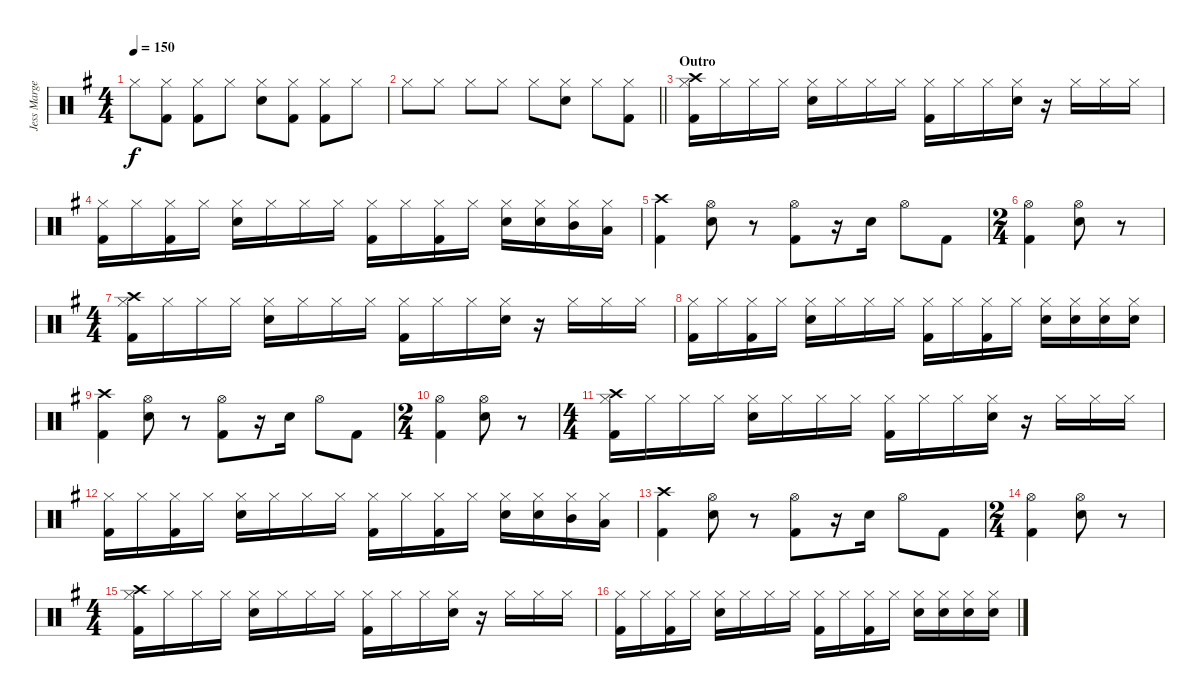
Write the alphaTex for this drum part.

\track ("Jess Margera" "Jess Marge") {instrument percussion}
\staff {score}
\articulation defaults
\ts (4 4)
\tempo 150
\clef neutral
\ks g "Hi-Hat (closed)".8{dy f}
("Hi-Hat (closed)" "Kick (hit) 2").8 ("Hi-Hat (closed)" "Kick (hit) 2").8 "Hi-Hat (closed)".8 ("Hi-Hat (closed)" "Electric Snare (hit)").8 ("Hi-Hat (closed)" "Kick (hit) 2").8 ("Hi-Hat (closed)" "Kick (hit) 2").8 "Hi-Hat (closed)".8 |
\barLineRight lightlight "Hi-Hat (closed)".8 "Hi-Hat (closed)".8 "Hi-Hat (closed)".8 "Hi-Hat (closed)".8 "Hi-Hat (closed)".8
("Hi-Hat (closed)" "Electric Snare (hit)").8 "Hi-Hat (closed)".8 ("Hi-Hat (closed)" "Kick (hit) 2").8 |
\section ("" "Outro")
("Crash high (hit)" "Hi-Hat (closed)" "Kick (hit) 2").16 "Hi-Hat (closed)".16 "Hi-Hat (closed)".16 "Hi-Hat (closed)".16 ("Hi-Hat (closed)" "Electric Snare (hit)").16 "Hi-Hat (closed)".16 "Hi-Hat (closed)".16 "Hi-Hat (closed)".16 ("Hi-Hat (closed)" "Kick (hit) 2").16 "Hi-Hat (closed)".16 "Hi-Hat (closed)".16 ("Hi-Hat (closed)" "Electric Snare (hit)").16 r.16 "Hi-Hat (closed)".16 "Hi-Hat (closed)".16 "Hi-Hat (closed)".16 |
("Hi-Hat (closed)" "Kick (hit) 2").16 "Hi-Hat (closed)".16 ("Hi-Hat (closed)" "Kick (hit) 2").16 "Hi-Hat (closed)".16 ("Hi-Hat (closed)" "Electric Snare (hit)").16 "Hi-Hat (closed)".16 "Hi-Hat (closed)".16 "Hi-Hat (closed)".16 ("Hi-Hat (closed)" "Kick (hit) 2").16 "Hi-Hat (closed)".16 ("Hi-Hat (closed)" "Kick (hit) 2").16 "Hi-Hat (closed)".16 ("Hi-Hat (closed)" "Electric Snare (hit)").16 ("Hi-Hat (closed)" "Electric Snare (hit)").16 ("Hi-Hat (closed)" "Mid Tom (hit)").16 ("Hi-Hat (closed)" "Low Tom (hit)").16 |
("Crash high (hit)" "Kick (hit) 2").4 ("Hi-Hat (open)" "Electric Snare (hit)").8 r.8 ("Hi-Hat (open)" "Kick (hit) 2").8 r.16 "Electric Snare (hit)".16 "Hi-Hat (open)".8 "Kick (hit) 2".8 |
\ts (2 4)
("Hi-Hat (open)" "Kick (hit) 2").4 ("Hi-Hat (open)" "Electric Snare (hit)").8 r.8 |
\ts (4 4)
("Crash high (hit)" "Hi-Hat (closed)" "Kick (hit) 2").16 "Hi-Hat (closed)".16 "Hi-Hat (closed)".16 "Hi-Hat (closed)".16 ("Hi-Hat (closed)" "Electric Snare (hit)").16 "Hi-Hat (closed)".16 "Hi-Hat (closed)".16 "Hi-Hat (closed)".16 ("Hi-Hat (closed)" "Kick (hit) 2").16 "Hi-Hat (closed)".16 "Hi-Hat (closed)".16 ("Hi-Hat (closed)" "Electric Snare (hit)").16 r.16 "Hi-Hat (closed)".16 "Hi-Hat (closed)".16 "Hi-Hat (closed)".16 |
("Hi-Hat (closed)" "Kick (hit) 2").16 "Hi-Hat (closed)".16 ("Hi-Hat (closed)" "Kick (hit) 2").16 "Hi-Hat (closed)".16 ("Hi-Hat (closed)" "Electric Snare (hit)").16 "Hi-Hat (closed)".16 "Hi-Hat (closed)".16 "Hi-Hat (closed)".16 ("Hi-Hat (closed)" "Kick (hit) 2").16 "Hi-Hat (closed)".16 ("Hi-Hat (closed)" "Kick (hit) 2").16 "Hi-Hat (closed)".16 ("Hi-Hat (closed)" "Electric Snare (hit)").16 ("Hi-Hat (closed)" "Electric Snare (hit)").16 ("Hi-Hat (closed)" "Electric Snare (hit)").16 ("Hi-Hat (closed)" "Electric Snare (hit)").16 |
("Crash high (hit)" "Kick (hit) 2").4 ("Hi-Hat (open)" "Electric Snare (hit)").8 r.8 ("Hi-Hat (open)" "Kick (hit) 2").8 r.16 "Electric Snare (hit)".16 "Hi-Hat (open)".8 "Kick (hit) 2".8 |
\ts (2 4)
("Hi-Hat (open)" "Kick (hit) 2").4 ("Hi-Hat (open)" "Electric Snare (hit)").8 r.8 |
\ts (4 4)
("Crash high (hit)" "Hi-Hat (closed)" "Kick (hit) 2").16 "Hi-Hat (closed)".16 "Hi-Hat (closed)".16 "Hi-Hat (closed)".16 ("Hi-Hat (closed)" "Electric Snare (hit)").16 "Hi-Hat (closed)".16 "Hi-Hat (closed)".16 "Hi-Hat (closed)".16 ("Hi-Hat (closed)" "Kick (hit) 2").16 "Hi-Hat (closed)".16 "Hi-Hat (closed)".16 ("Hi-Hat (closed)" "Electric Snare (hit)").16 r.16 "Hi-Hat (closed)".16 "Hi-Hat (closed)".16 "Hi-Hat (closed)".16 |
("Hi-Hat (closed)" "Kick (hit) 2").16 "Hi-Hat (closed)".16 ("Hi-Hat (closed)" "Kick (hit) 2").16 "Hi-Hat (closed)".16 ("Hi-Hat (closed)" "Electric Snare (hit)").16 "Hi-Hat (closed)".16 "Hi-Hat (closed)".16 "Hi-Hat (closed)".16 ("Hi-Hat (closed)" "Kick (hit) 2").16 "Hi-Hat (closed)".16 ("Hi-Hat (closed)" "Kick (hit) 2").16 "Hi-Hat (closed)".16 ("Hi-Hat (closed)" "Electric Snare (hit)").16 ("Hi-Hat (closed)" "Electric Snare (hit)").16 ("Hi-Hat (closed)" "Mid Tom (hit)").16 ("Hi-Hat (closed)" "Low Tom (hit)").16 |
("Crash high (hit)" "Kick (hit) 2").4 ("Hi-Hat (open)" "Electric Snare (hit)").8 r.8 ("Hi-Hat (open)" "Kick (hit) 2").8 r.16 "Electric Snare (hit)".16 "Hi-Hat (open)".8 "Kick (hit) 2".8 |
\ts (2 4)
("Hi-Hat (open)" "Kick (hit) 2").4 ("Hi-Hat (open)" "Electric Snare (hit)").8 r.8 |
\ts (4 4)
("Crash high (hit)" "Hi-Hat (closed)" "Kick (hit) 2").16 "Hi-Hat (closed)".16 "Hi-Hat (closed)".16 "Hi-Hat (closed)".16 ("Hi-Hat (closed)" "Electric Snare (hit)").16 "Hi-Hat (closed)".16 "Hi-Hat (closed)".16 "Hi-Hat (closed)".16 ("Hi-Hat (closed)" "Kick (hit) 2").16 "Hi-Hat (closed)".16 "Hi-Hat (closed)".16 ("Hi-Hat (closed)" "Electric Snare (hit)").16 r.16 "Hi-Hat (closed)".16 "Hi-Hat (closed)".16 "Hi-Hat (closed)".16 |
("Hi-Hat (closed)" "Kick (hit) 2").16 "Hi-Hat (closed)".16 ("Hi-Hat (closed)" "Kick (hit) 2").16 "Hi-Hat (closed)".16 ("Hi-Hat (closed)" "Electric Snare (hit)").16 "Hi-Hat (closed)".16 "Hi-Hat (closed)".16 "Hi-Hat (closed)".16 ("Hi-Hat (closed)" "Kick (hit) 2").16 "Hi-Hat (closed)".16 ("Hi-Hat (closed)" "Kick (hit) 2").16 "Hi-Hat (closed)".16 ("Hi-Hat (closed)" "Electric Snare (hit)").16 ("Hi-Hat (closed)" "Electric Snare (hit)").16 ("Hi-Hat (closed)" "Electric Snare (hit)").16 ("Hi-Hat (closed)" "Electric Snare (hit)").16
